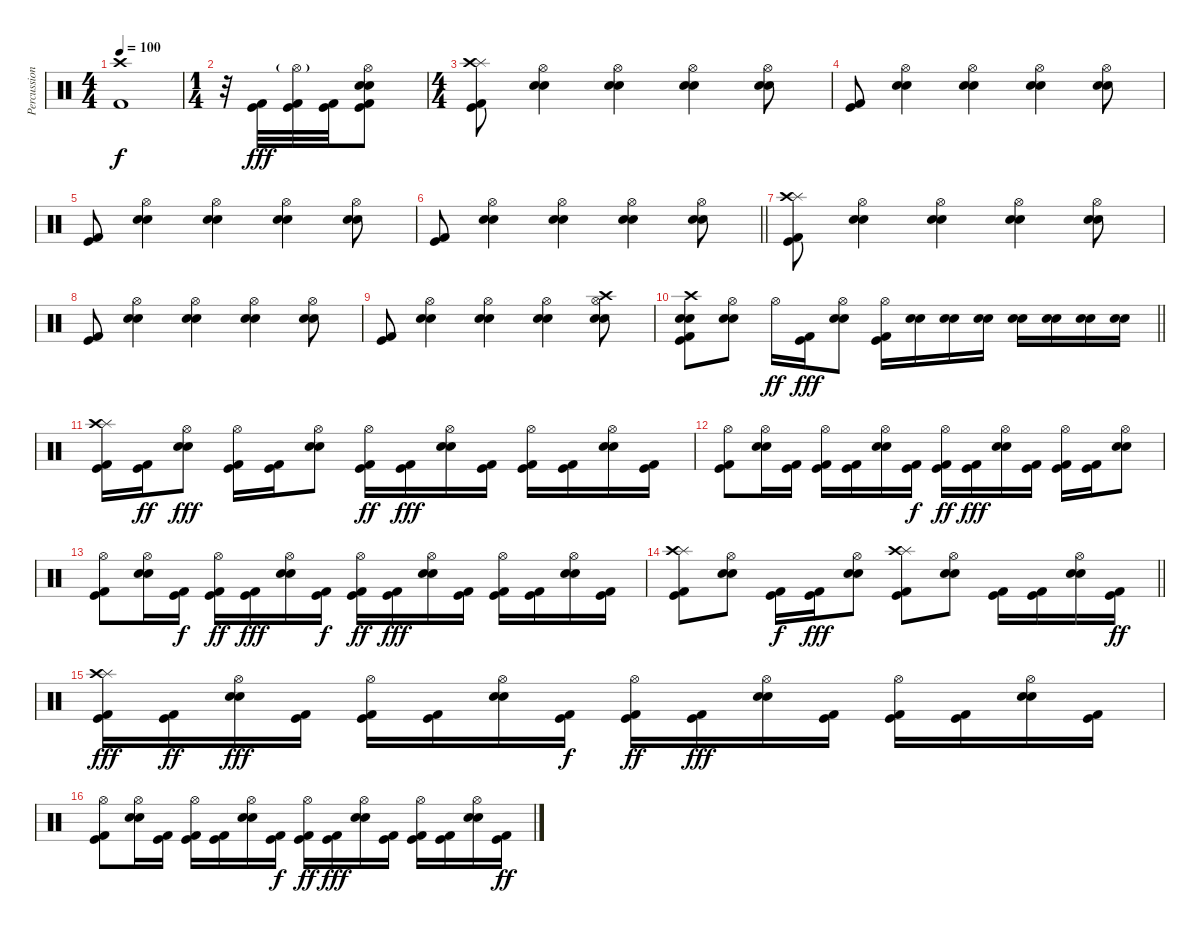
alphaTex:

\track ("Percussion" "Percussion") {instrument percussion}
\staff {score}
\articulation defaults
\ts (4 4)
\tempo 100
\clef neutral
\ks c
("Crash high (hit)" "Kick (hit) 2").1{dy f} |
\ts (1 4)
r.32 ("Kick (hit)" "Kick (hit) 2").32{dy fff} ("Hi-Hat (open)"{g} "Kick (hit)" "Kick (hit) 2").32 ("Kick (hit)" "Kick (hit) 2").32 ("Hi-Hat (open)" "Electric Snare (hit)" "Snare (hit) 2" "Kick (hit)" "Kick (hit) 2").8 |
\ts (4 4)
("Splash (hit)" "Crash high (hit)" "Kick (hit)" "Kick (hit) 2").8 ("Hi-Hat (open)" "Electric Snare (hit)" "Snare (hit) 2").4 ("Hi-Hat (open)" "Electric Snare (hit)" "Snare (hit) 2").4 ("Hi-Hat (open)" "Electric Snare (hit)" "Snare (hit) 2").4 ("Hi-Hat (open)" "Electric Snare (hit)" "Snare (hit) 2").8 |
("Kick (hit)" "Kick (hit) 2").8 ("Hi-Hat (open)" "Electric Snare (hit)" "Snare (hit) 2").4 ("Hi-Hat (open)" "Electric Snare (hit)" "Snare (hit) 2").4 ("Hi-Hat (open)" "Electric Snare (hit)" "Snare (hit) 2").4 ("Hi-Hat (open)" "Electric Snare (hit)" "Snare (hit) 2").8 |
("Kick (hit)" "Kick (hit) 2").8 ("Hi-Hat (open)" "Electric Snare (hit)" "Snare (hit) 2").4 ("Hi-Hat (open)" "Electric Snare (hit)" "Snare (hit) 2").4 ("Hi-Hat (open)" "Electric Snare (hit)" "Snare (hit) 2").4 ("Hi-Hat (open)" "Electric Snare (hit)" "Snare (hit) 2").8 |
\barLineRight lightlight
("Kick (hit)" "Kick (hit) 2").8 ("Hi-Hat (open)" "Electric Snare (hit)" "Snare (hit) 2").4 ("Hi-Hat (open)" "Electric Snare (hit)" "Snare (hit) 2").4 ("Hi-Hat (open)" "Electric Snare (hit)" "Snare (hit) 2").4 ("Hi-Hat (open)" "Electric Snare (hit)" "Snare (hit) 2").8 |
("Splash (hit)" "Crash high (hit)" "Kick (hit)" "Kick (hit) 2").8 ("Hi-Hat (open)" "Electric Snare (hit)" "Snare (hit) 2").4 ("Hi-Hat (open)" "Electric Snare (hit)" "Snare (hit) 2").4 ("Hi-Hat (open)" "Electric Snare (hit)" "Snare (hit) 2").4 ("Hi-Hat (open)" "Electric Snare (hit)" "Snare (hit) 2").8 |
("Kick (hit)" "Kick (hit) 2").8 ("Hi-Hat (open)" "Electric Snare (hit)" "Snare (hit) 2").4 ("Hi-Hat (open)" "Electric Snare (hit)" "Snare (hit) 2").4 ("Hi-Hat (open)" "Electric Snare (hit)" "Snare (hit) 2").4 ("Hi-Hat (open)" "Electric Snare (hit)" "Snare (hit) 2").8 |
("Kick (hit)" "Kick (hit) 2").8 ("Hi-Hat (open)" "Electric Snare (hit)" "Snare (hit) 2").4 ("Hi-Hat (open)" "Electric Snare (hit)" "Snare (hit) 2").4 ("Hi-Hat (open)" "Electric Snare (hit)" "Snare (hit) 2").4 ("Hi-Hat (open)" "Electric Snare (hit)" "Snare (hit) 2" "Crash high (hit)").8 |
\barLineRight lightlight
("Crash high (hit)" "Electric Snare (hit)" "Snare (hit) 2" "Kick (hit)" "Kick (hit) 2").8 ("Hi-Hat (open)" "Electric Snare (hit)" "Snare (hit) 2").8 "Hi-Hat (open)".16{dy ff} ("Kick (hit)" "Kick (hit) 2").16{dy fff} ("Hi-Hat (open)" "Electric Snare (hit)" "Snare (hit) 2").8 ("Hi-Hat (open)" "Kick (hit)" "Kick (hit) 2").16 ("Electric Snare (hit)" "Snare (hit) 2").16 ("Electric Snare (hit)" "Snare (hit) 2").16 ("Electric Snare (hit)" "Snare (hit) 2").16 ("Electric Snare (hit)" "Snare (hit) 2").16 ("Electric Snare (hit)" "Snare (hit) 2").16 ("Electric Snare (hit)" "Snare (hit) 2").16 ("Electric Snare (hit)" "Snare (hit) 2").16 |
("Splash (hit)" "Crash high (hit)" "Kick (hit)" "Kick (hit) 2").16 ("Kick (hit)" "Kick (hit) 2").16{dy ff} ("Hi-Hat (open)" "Electric Snare (hit)" "Snare (hit) 2").8{dy fff} ("Hi-Hat (open)" "Kick (hit)" "Kick (hit) 2").16 ("Kick (hit)" "Kick (hit) 2").16 ("Hi-Hat (open)" "Electric Snare (hit)" "Snare (hit) 2").8 ("Hi-Hat (open)" "Kick (hit)" "Kick (hit) 2").16{dy ff} ("Kick (hit)" "Kick (hit) 2").16{dy fff} ("Hi-Hat (open)" "Electric Snare (hit)" "Snare (hit) 2").16 ("Kick (hit)" "Kick (hit) 2").16 ("Hi-Hat (open)" "Kick (hit)" "Kick (hit) 2").16 ("Kick (hit)" "Kick (hit) 2").16 ("Hi-Hat (open)" "Electric Snare (hit)" "Snare (hit) 2").16 ("Kick (hit)" "Kick (hit) 2").16 |
("Hi-Hat (open)" "Kick (hit)" "Kick (hit) 2").8 ("Hi-Hat (open)" "Electric Snare (hit)" "Snare (hit) 2").16 ("Kick (hit)" "Kick (hit) 2").16 ("Hi-Hat (open)" "Kick (hit)" "Kick (hit) 2").16 ("Kick (hit)" "Kick (hit) 2").16 ("Hi-Hat (open)" "Electric Snare (hit)" "Snare (hit) 2").16 ("Kick (hit)" "Kick (hit) 2").16{dy f} ("Hi-Hat (open)" "Kick (hit)" "Kick (hit) 2").16{dy ff} ("Kick (hit)" "Kick (hit) 2").16{dy fff} ("Hi-Hat (open)" "Electric Snare (hit)" "Snare (hit) 2").16 ("Kick (hit)" "Kick (hit) 2").16 ("Hi-Hat (open)" "Kick (hit)" "Kick (hit) 2").16 ("Kick (hit)" "Kick (hit) 2").16 ("Hi-Hat (open)" "Electric Snare (hit)" "Snare (hit) 2").8 |
("Hi-Hat (open)" "Kick (hit)" "Kick (hit) 2").8 ("Hi-Hat (open)" "Electric Snare (hit)" "Snare (hit) 2").16 ("Kick (hit)" "Kick (hit) 2").16{dy f} ("Hi-Hat (open)" "Kick (hit)" "Kick (hit) 2").16{dy ff} ("Kick (hit)" "Kick (hit) 2").16{dy fff} ("Hi-Hat (open)" "Electric Snare (hit)" "Snare (hit) 2").16 ("Kick (hit)" "Kick (hit) 2").16{dy f} ("Hi-Hat (open)" "Kick (hit)" "Kick (hit) 2").16{dy ff} ("Kick (hit)" "Kick (hit) 2").16{dy fff} ("Hi-Hat (open)" "Electric Snare (hit)" "Snare (hit) 2").16 ("Kick (hit)" "Kick (hit) 2").16 ("Hi-Hat (open)" "Kick (hit)" "Kick (hit) 2").16 ("Kick (hit)" "Kick (hit) 2").16 ("Hi-Hat (open)" "Electric Snare (hit)" "Snare (hit) 2").16 ("Kick (hit)" "Kick (hit) 2").16 |
\barLineRight lightlight
("Splash (hit)" "Crash high (hit)" "Kick (hit)" "Kick (hit) 2").8 ("Hi-Hat (open)" "Electric Snare (hit)" "Snare (hit) 2").8 ("Kick (hit)" "Kick (hit) 2").16{dy f} ("Kick (hit)" "Kick (hit) 2").16{dy fff} ("Hi-Hat (open)" "Electric Snare (hit)" "Snare (hit) 2").8 ("Splash (hit)" "Crash high (hit)" "Kick (hit)" "Kick (hit) 2").8 ("Hi-Hat (open)" "Electric Snare (hit)" "Snare (hit) 2").8 ("Kick (hit)" "Kick (hit) 2").16 ("Kick (hit)" "Kick (hit) 2").16 ("Hi-Hat (open)" "Electric Snare (hit)" "Snare (hit) 2").16 ("Kick (hit)" "Kick (hit) 2").16{dy ff} |
("Splash (hit)" "Crash high (hit)" "Kick (hit)" "Kick (hit) 2").16{dy fff} ("Kick (hit)" "Kick (hit) 2").16{dy ff} ("Hi-Hat (open)" "Electric Snare (hit)" "Snare (hit) 2").16{dy fff} ("Kick (hit)" "Kick (hit) 2").16 ("Hi-Hat (open)" "Kick (hit)" "Kick (hit) 2").16 ("Kick (hit)" "Kick (hit) 2").16 ("Hi-Hat (open)" "Electric Snare (hit)" "Snare (hit) 2").16 ("Kick (hit)" "Kick (hit) 2").16{dy f} ("Hi-Hat (open)" "Kick (hit)" "Kick (hit) 2").16{dy ff} ("Kick (hit)" "Kick (hit) 2").16{dy fff} ("Hi-Hat (open)" "Electric Snare (hit)" "Snare (hit) 2").16 ("Kick (hit)" "Kick (hit) 2").16 ("Hi-Hat (open)" "Kick (hit)" "Kick (hit) 2").16 ("Kick (hit)" "Kick (hit) 2").16 ("Hi-Hat (open)" "Electric Snare (hit)" "Snare (hit) 2").16 ("Kick (hit)" "Kick (hit) 2").16 |
("Hi-Hat (open)" "Kick (hit)" "Kick (hit) 2").8 ("Hi-Hat (open)" "Electric Snare (hit)" "Snare (hit) 2").16 ("Kick (hit)" "Kick (hit) 2").16 ("Hi-Hat (open)" "Kick (hit)" "Kick (hit) 2").16 ("Kick (hit)" "Kick (hit) 2").16 ("Hi-Hat (open)" "Electric Snare (hit)" "Snare (hit) 2").16 ("Kick (hit)" "Kick (hit) 2").16{dy f} ("Hi-Hat (open)" "Kick (hit)" "Kick (hit) 2").16{dy ff} ("Kick (hit)" "Kick (hit) 2").16{dy fff} ("Hi-Hat (open)" "Electric Snare (hit)" "Snare (hit) 2").16 ("Kick (hit)" "Kick (hit) 2").16 ("Hi-Hat (open)" "Kick (hit)" "Kick (hit) 2").16 ("Kick (hit)" "Kick (hit) 2").16 ("Hi-Hat (open)" "Electric Snare (hit)" "Snare (hit) 2").16 ("Kick (hit)" "Kick (hit) 2").16{dy ff}
